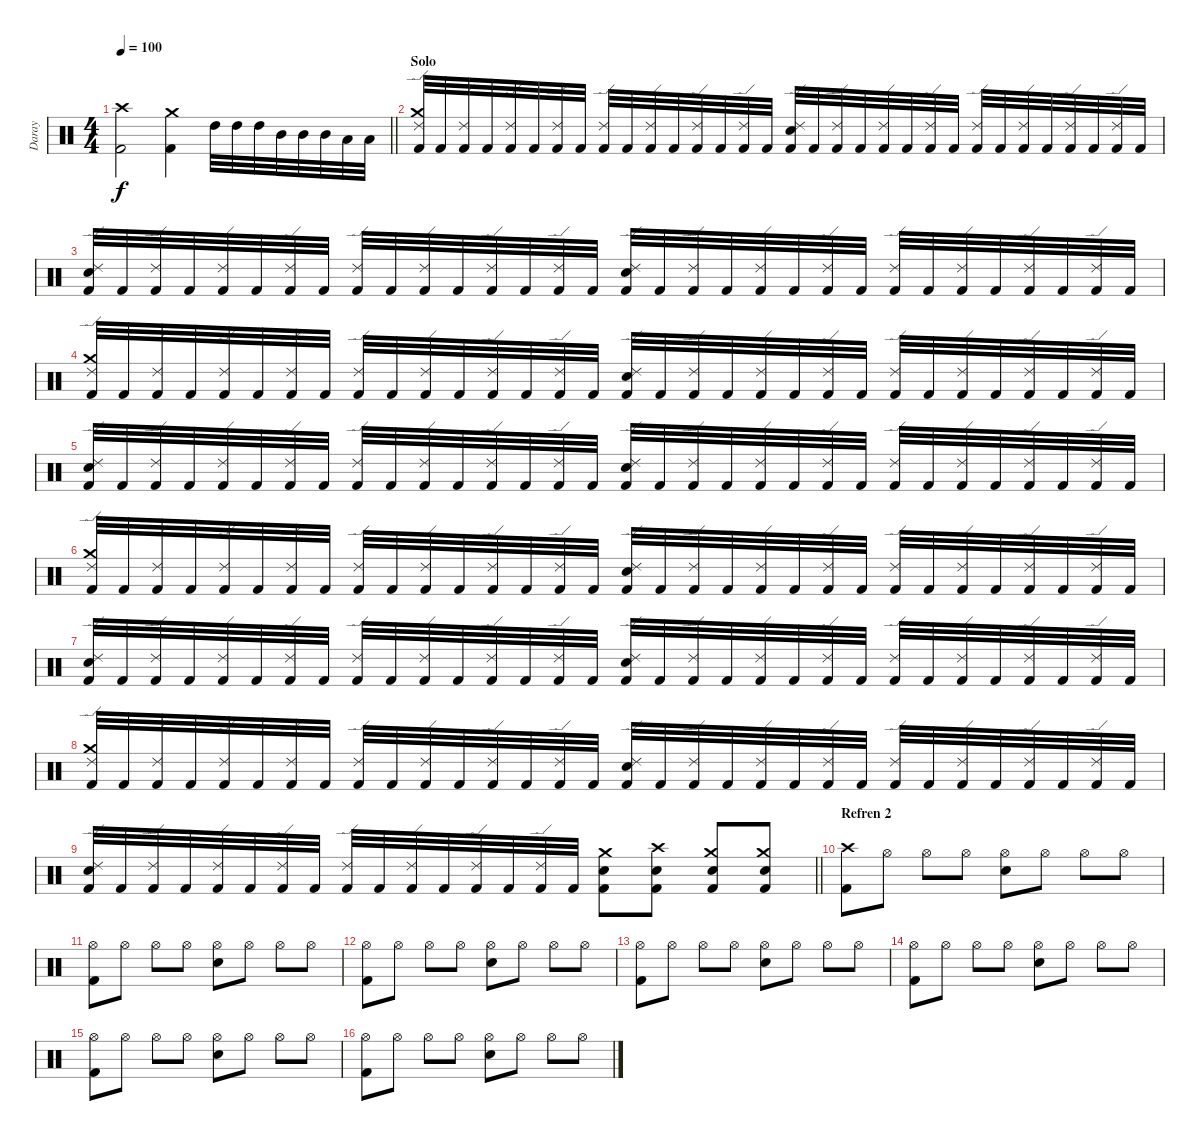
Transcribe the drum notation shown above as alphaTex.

\track ("Daray" "Daray") {instrument percussion}
\staff {score}
\articulation defaults
\ts (4 4)
\tempo 100
\clef neutral
\barLineRight lightlight
\ks c
("Crash high (hit)" "Kick (hit) 2").2{dy f} ("Crash medium (hit)" "Kick (hit) 2").4 "High Tom (hit)".32 "High Tom (hit)".32 "High Tom (hit)".32 "Mid Tom (hit)".32 "Mid Tom (hit)".32 "Mid Tom (hit)".32 "Low Tom (hit)".32 "Low Tom (hit)".32 |
\section ("" "Solo")
("Ride (edge) 2" "Crash medium (hit)" "Kick (hit) 2").32 "Kick (hit) 2".32 ("Ride (edge) 2" "Kick (hit) 2").32 "Kick (hit) 2".32 ("Ride (edge) 2" "Kick (hit) 2").32 "Kick (hit) 2".32 ("Ride (edge) 2" "Kick (hit) 2").32 "Kick (hit) 2".32 ("Ride (edge) 2" "Kick (hit) 2").32 "Kick (hit) 2".32 ("Ride (edge) 2" "Kick (hit) 2").32 "Kick (hit) 2".32 ("Ride (edge) 2" "Kick (hit) 2").32 "Kick (hit) 2".32 ("Ride (edge) 2" "Kick (hit) 2").32 "Kick (hit) 2".32 ("Snare (hit) 2" "Ride (edge) 2" "Kick (hit) 2").32 "Kick (hit) 2".32 ("Ride (edge) 2" "Kick (hit) 2").32 "Kick (hit) 2".32 ("Ride (edge) 2" "Kick (hit) 2").32 "Kick (hit) 2".32 ("Ride (edge) 2" "Kick (hit) 2").32 "Kick (hit) 2".32 ("Ride (edge) 2" "Kick (hit) 2").32 "Kick (hit) 2".32 ("Ride (edge) 2" "Kick (hit) 2").32 "Kick (hit) 2".32 ("Ride (edge) 2" "Kick (hit) 2").32 "Kick (hit) 2".32 ("Ride (edge) 2" "Kick (hit) 2").32 "Kick (hit) 2".32 |
("Snare (hit) 2" "Ride (edge) 2" "Kick (hit) 2").32 "Kick (hit) 2".32 ("Ride (edge) 2" "Kick (hit) 2").32 "Kick (hit) 2".32 ("Ride (edge) 2" "Kick (hit) 2").32 "Kick (hit) 2".32 ("Ride (edge) 2" "Kick (hit) 2").32 "Kick (hit) 2".32 ("Ride (edge) 2" "Kick (hit) 2").32 "Kick (hit) 2".32 ("Ride (edge) 2" "Kick (hit) 2").32 "Kick (hit) 2".32 ("Ride (edge) 2" "Kick (hit) 2").32 "Kick (hit) 2".32 ("Ride (edge) 2" "Kick (hit) 2").32 "Kick (hit) 2".32 ("Snare (hit) 2" "Ride (edge) 2" "Kick (hit) 2").32 "Kick (hit) 2".32 ("Ride (edge) 2" "Kick (hit) 2").32 "Kick (hit) 2".32 ("Ride (edge) 2" "Kick (hit) 2").32 "Kick (hit) 2".32 ("Ride (edge) 2" "Kick (hit) 2").32 "Kick (hit) 2".32 ("Ride (edge) 2" "Kick (hit) 2").32 "Kick (hit) 2".32 ("Ride (edge) 2" "Kick (hit) 2").32 "Kick (hit) 2".32 ("Ride (edge) 2" "Kick (hit) 2").32 "Kick (hit) 2".32 ("Ride (edge) 2" "Kick (hit) 2").32 "Kick (hit) 2".32 |
("Ride (edge) 2" "Crash medium (hit)" "Kick (hit) 2").32 "Kick (hit) 2".32 ("Ride (edge) 2" "Kick (hit) 2").32 "Kick (hit) 2".32 ("Ride (edge) 2" "Kick (hit) 2").32 "Kick (hit) 2".32 ("Ride (edge) 2" "Kick (hit) 2").32 "Kick (hit) 2".32 ("Ride (edge) 2" "Kick (hit) 2").32 "Kick (hit) 2".32 ("Ride (edge) 2" "Kick (hit) 2").32 "Kick (hit) 2".32 ("Ride (edge) 2" "Kick (hit) 2").32 "Kick (hit) 2".32 ("Ride (edge) 2" "Kick (hit) 2").32 "Kick (hit) 2".32 ("Snare (hit) 2" "Ride (edge) 2" "Kick (hit) 2").32 "Kick (hit) 2".32 ("Ride (edge) 2" "Kick (hit) 2").32 "Kick (hit) 2".32 ("Ride (edge) 2" "Kick (hit) 2").32 "Kick (hit) 2".32 ("Ride (edge) 2" "Kick (hit) 2").32 "Kick (hit) 2".32 ("Ride (edge) 2" "Kick (hit) 2").32 "Kick (hit) 2".32 ("Ride (edge) 2" "Kick (hit) 2").32 "Kick (hit) 2".32 ("Ride (edge) 2" "Kick (hit) 2").32 "Kick (hit) 2".32 ("Ride (edge) 2" "Kick (hit) 2").32 "Kick (hit) 2".32 |
("Snare (hit) 2" "Ride (edge) 2" "Kick (hit) 2").32 "Kick (hit) 2".32 ("Ride (edge) 2" "Kick (hit) 2").32 "Kick (hit) 2".32 ("Ride (edge) 2" "Kick (hit) 2").32 "Kick (hit) 2".32 ("Ride (edge) 2" "Kick (hit) 2").32 "Kick (hit) 2".32 ("Ride (edge) 2" "Kick (hit) 2").32 "Kick (hit) 2".32 ("Ride (edge) 2" "Kick (hit) 2").32 "Kick (hit) 2".32 ("Ride (edge) 2" "Kick (hit) 2").32 "Kick (hit) 2".32 ("Ride (edge) 2" "Kick (hit) 2").32 "Kick (hit) 2".32 ("Snare (hit) 2" "Ride (edge) 2" "Kick (hit) 2").32 "Kick (hit) 2".32 ("Ride (edge) 2" "Kick (hit) 2").32 "Kick (hit) 2".32 ("Ride (edge) 2" "Kick (hit) 2").32 "Kick (hit) 2".32 ("Ride (edge) 2" "Kick (hit) 2").32 "Kick (hit) 2".32 ("Ride (edge) 2" "Kick (hit) 2").32 "Kick (hit) 2".32 ("Ride (edge) 2" "Kick (hit) 2").32 "Kick (hit) 2".32 ("Ride (edge) 2" "Kick (hit) 2").32 "Kick (hit) 2".32 ("Ride (edge) 2" "Kick (hit) 2").32 "Kick (hit) 2".32 |
("Ride (edge) 2" "Crash medium (hit)" "Kick (hit) 2").32 "Kick (hit) 2".32 ("Ride (edge) 2" "Kick (hit) 2").32 "Kick (hit) 2".32 ("Ride (edge) 2" "Kick (hit) 2").32 "Kick (hit) 2".32 ("Ride (edge) 2" "Kick (hit) 2").32 "Kick (hit) 2".32 ("Ride (edge) 2" "Kick (hit) 2").32 "Kick (hit) 2".32 ("Ride (edge) 2" "Kick (hit) 2").32 "Kick (hit) 2".32 ("Ride (edge) 2" "Kick (hit) 2").32 "Kick (hit) 2".32 ("Ride (edge) 2" "Kick (hit) 2").32 "Kick (hit) 2".32 ("Snare (hit) 2" "Ride (edge) 2" "Kick (hit) 2").32 "Kick (hit) 2".32 ("Ride (edge) 2" "Kick (hit) 2").32 "Kick (hit) 2".32 ("Ride (edge) 2" "Kick (hit) 2").32 "Kick (hit) 2".32 ("Ride (edge) 2" "Kick (hit) 2").32 "Kick (hit) 2".32 ("Ride (edge) 2" "Kick (hit) 2").32 "Kick (hit) 2".32 ("Ride (edge) 2" "Kick (hit) 2").32 "Kick (hit) 2".32 ("Ride (edge) 2" "Kick (hit) 2").32 "Kick (hit) 2".32 ("Ride (edge) 2" "Kick (hit) 2").32 "Kick (hit) 2".32 |
("Snare (hit) 2" "Ride (edge) 2" "Kick (hit) 2").32 "Kick (hit) 2".32 ("Ride (edge) 2" "Kick (hit) 2").32 "Kick (hit) 2".32 ("Ride (edge) 2" "Kick (hit) 2").32 "Kick (hit) 2".32 ("Ride (edge) 2" "Kick (hit) 2").32 "Kick (hit) 2".32 ("Ride (edge) 2" "Kick (hit) 2").32 "Kick (hit) 2".32 ("Ride (edge) 2" "Kick (hit) 2").32 "Kick (hit) 2".32 ("Ride (edge) 2" "Kick (hit) 2").32 "Kick (hit) 2".32 ("Ride (edge) 2" "Kick (hit) 2").32 "Kick (hit) 2".32 ("Snare (hit) 2" "Ride (edge) 2" "Kick (hit) 2").32 "Kick (hit) 2".32 ("Ride (edge) 2" "Kick (hit) 2").32 "Kick (hit) 2".32 ("Ride (edge) 2" "Kick (hit) 2").32 "Kick (hit) 2".32 ("Ride (edge) 2" "Kick (hit) 2").32 "Kick (hit) 2".32 ("Ride (edge) 2" "Kick (hit) 2").32 "Kick (hit) 2".32 ("Ride (edge) 2" "Kick (hit) 2").32 "Kick (hit) 2".32 ("Ride (edge) 2" "Kick (hit) 2").32 "Kick (hit) 2".32 ("Ride (edge) 2" "Kick (hit) 2").32 "Kick (hit) 2".32 |
("Ride (edge) 2" "Crash medium (hit)" "Kick (hit) 2").32 "Kick (hit) 2".32 ("Ride (edge) 2" "Kick (hit) 2").32 "Kick (hit) 2".32 ("Ride (edge) 2" "Kick (hit) 2").32 "Kick (hit) 2".32 ("Ride (edge) 2" "Kick (hit) 2").32 "Kick (hit) 2".32 ("Ride (edge) 2" "Kick (hit) 2").32 "Kick (hit) 2".32 ("Ride (edge) 2" "Kick (hit) 2").32 "Kick (hit) 2".32 ("Ride (edge) 2" "Kick (hit) 2").32 "Kick (hit) 2".32 ("Ride (edge) 2" "Kick (hit) 2").32 "Kick (hit) 2".32 ("Snare (hit) 2" "Ride (edge) 2" "Kick (hit) 2").32 "Kick (hit) 2".32 ("Ride (edge) 2" "Kick (hit) 2").32 "Kick (hit) 2".32 ("Ride (edge) 2" "Kick (hit) 2").32 "Kick (hit) 2".32 ("Ride (edge) 2" "Kick (hit) 2").32 "Kick (hit) 2".32 ("Ride (edge) 2" "Kick (hit) 2").32 "Kick (hit) 2".32 ("Ride (edge) 2" "Kick (hit) 2").32 "Kick (hit) 2".32 ("Ride (edge) 2" "Kick (hit) 2").32 "Kick (hit) 2".32 ("Ride (edge) 2" "Kick (hit) 2").32 "Kick (hit) 2".32 |
\barLineRight lightlight
("Snare (hit) 2" "Ride (edge) 2" "Kick (hit) 2").32 "Kick (hit) 2".32 ("Ride (edge) 2" "Kick (hit) 2").32 "Kick (hit) 2".32 ("Ride (edge) 2" "Kick (hit) 2").32 "Kick (hit) 2".32 ("Ride (edge) 2" "Kick (hit) 2").32 "Kick (hit) 2".32 ("Ride (edge) 2" "Kick (hit) 2").32 "Kick (hit) 2".32 ("Ride (edge) 2" "Kick (hit) 2").32 "Kick (hit) 2".32 ("Ride (edge) 2" "Kick (hit) 2").32 "Kick (hit) 2".32 ("Ride (edge) 2" "Kick (hit) 2").32 "Kick (hit) 2".32 ("Crash medium (hit)" "Snare (hit) 2" "Kick (hit) 2").8 ("Crash high (hit)" "Snare (hit) 2" "Kick (hit) 2").8 ("Crash medium (hit)" "Snare (hit) 2" "Kick (hit) 2").8 ("Crash medium (hit)" "Snare (hit) 2" "Kick (hit) 2").8 |
\section ("" "Refren 2")
("Crash high (hit)" "Kick (hit) 2").8 "Hi-Hat (open)".8 "Hi-Hat (open)".8 "Hi-Hat (open)".8 ("Hi-Hat (open)" "Electric Snare (hit)").8 "Hi-Hat (open)".8 "Hi-Hat (open)".8 "Hi-Hat (open)".8 |
("Hi-Hat (open)" "Kick (hit) 2").8 "Hi-Hat (open)".8 "Hi-Hat (open)".8 "Hi-Hat (open)".8 ("Hi-Hat (open)" "Electric Snare (hit)").8 "Hi-Hat (open)".8 "Hi-Hat (open)".8 "Hi-Hat (open)".8 |
("Hi-Hat (open)" "Kick (hit) 2").8 "Hi-Hat (open)".8 "Hi-Hat (open)".8 "Hi-Hat (open)".8 ("Hi-Hat (open)" "Electric Snare (hit)").8 "Hi-Hat (open)".8 "Hi-Hat (open)".8 "Hi-Hat (open)".8 |
("Hi-Hat (open)" "Kick (hit) 2").8 "Hi-Hat (open)".8 "Hi-Hat (open)".8 "Hi-Hat (open)".8 ("Hi-Hat (open)" "Electric Snare (hit)").8 "Hi-Hat (open)".8 "Hi-Hat (open)".8 "Hi-Hat (open)".8 |
("Hi-Hat (open)" "Kick (hit) 2").8 "Hi-Hat (open)".8 "Hi-Hat (open)".8 "Hi-Hat (open)".8 ("Hi-Hat (open)" "Electric Snare (hit)").8 "Hi-Hat (open)".8 "Hi-Hat (open)".8 "Hi-Hat (open)".8 |
("Hi-Hat (open)" "Kick (hit) 2").8 "Hi-Hat (open)".8 "Hi-Hat (open)".8 "Hi-Hat (open)".8 ("Hi-Hat (open)" "Electric Snare (hit)").8 "Hi-Hat (open)".8 "Hi-Hat (open)".8 "Hi-Hat (open)".8 |
("Hi-Hat (open)" "Kick (hit) 2").8 "Hi-Hat (open)".8 "Hi-Hat (open)".8 "Hi-Hat (open)".8 ("Hi-Hat (open)" "Electric Snare (hit)").8 "Hi-Hat (open)".8 "Hi-Hat (open)".8 "Hi-Hat (open)".8
